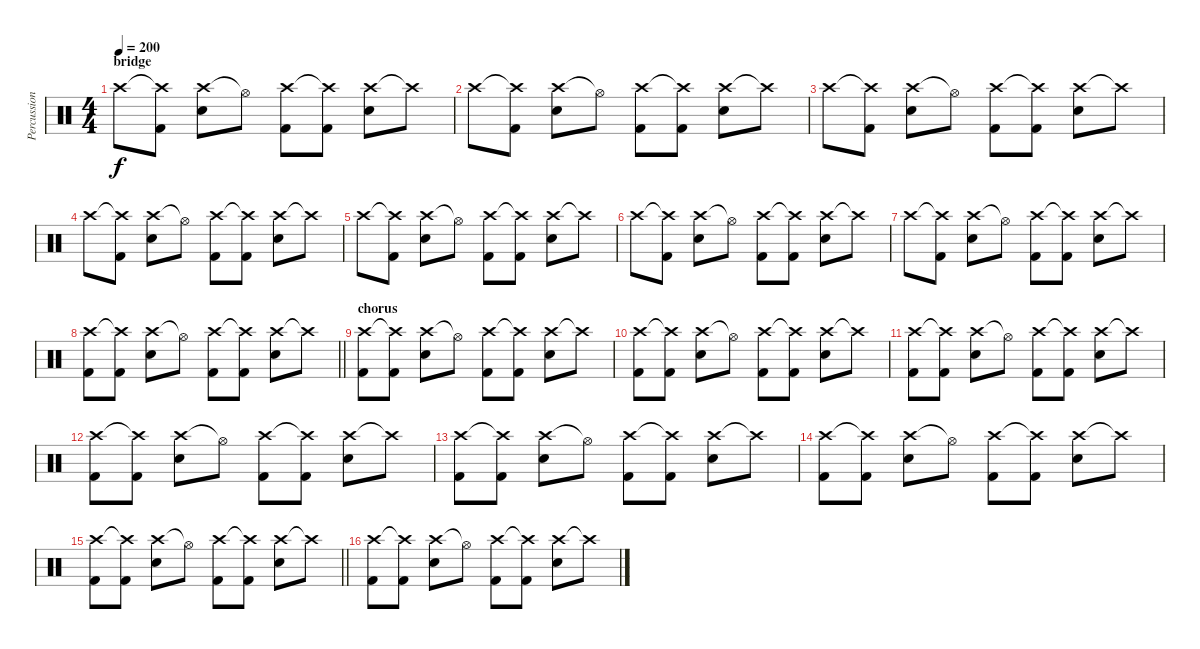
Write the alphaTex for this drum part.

\track ("Percussion" "Percussion") {instrument percussion}
\staff {score}
\articulation defaults
\ts (4 4)
\section ("" "bridge")
\tempo 200
\clef neutral
\ks c "Crash high (hit)".8{dy f}
("Crash high (hit)"{t} "Kick (hit) 2").8 ("Crash high (hit)" "Snare (hit) 2").8 "Hi-Hat (open)"{t}.8 ("Crash high (hit)" "Kick (hit) 2").8 ("Crash high (hit)"{t} "Kick (hit) 2").8 ("Crash high (hit)" "Snare (hit) 2").8 "Crash high (hit)"{t}.8 |
"Crash high (hit)".8 ("Crash high (hit)"{t} "Kick (hit) 2").8 ("Crash high (hit)" "Snare (hit) 2").8 "Hi-Hat (open)"{t}.8 ("Crash high (hit)" "Kick (hit) 2").8 ("Crash high (hit)"{t} "Kick (hit) 2").8 ("Crash high (hit)" "Snare (hit) 2").8 "Crash high (hit)"{t}.8 |
"Crash high (hit)".8 ("Crash high (hit)"{t} "Kick (hit) 2").8 ("Crash high (hit)" "Snare (hit) 2").8 "Hi-Hat (open)"{t}.8 ("Crash high (hit)" "Kick (hit) 2").8 ("Crash high (hit)"{t} "Kick (hit) 2").8 ("Crash high (hit)" "Snare (hit) 2").8 "Crash high (hit)"{t}.8 |
"Crash high (hit)".8 ("Crash high (hit)"{t} "Kick (hit) 2").8 ("Crash high (hit)" "Snare (hit) 2").8 "Hi-Hat (open)"{t}.8 ("Crash high (hit)" "Kick (hit) 2").8 ("Crash high (hit)"{t} "Kick (hit) 2").8 ("Crash high (hit)" "Snare (hit) 2").8 "Crash high (hit)"{t}.8 |
"Crash high (hit)".8 ("Crash high (hit)"{t} "Kick (hit) 2").8 ("Crash high (hit)" "Snare (hit) 2").8 "Hi-Hat (open)"{t}.8 ("Crash high (hit)" "Kick (hit) 2").8 ("Crash high (hit)"{t} "Kick (hit) 2").8 ("Crash high (hit)" "Snare (hit) 2").8 "Crash high (hit)"{t}.8 |
"Crash high (hit)".8 ("Crash high (hit)"{t} "Kick (hit) 2").8 ("Crash high (hit)" "Snare (hit) 2").8 "Hi-Hat (open)"{t}.8 ("Crash high (hit)" "Kick (hit) 2").8 ("Crash high (hit)"{t} "Kick (hit) 2").8 ("Crash high (hit)" "Snare (hit) 2").8 "Crash high (hit)"{t}.8 |
"Crash high (hit)".8 ("Crash high (hit)"{t} "Kick (hit) 2").8 ("Crash high (hit)" "Snare (hit) 2").8 "Hi-Hat (open)"{t}.8 ("Crash high (hit)" "Kick (hit) 2").8 ("Crash high (hit)"{t} "Kick (hit) 2").8 ("Crash high (hit)" "Snare (hit) 2").8 "Crash high (hit)"{t}.8 |
\barLineRight lightlight
("Crash high (hit)" "Kick (hit) 2").8 ("Crash high (hit)"{t} "Kick (hit) 2").8 ("Crash high (hit)" "Snare (hit) 2").8 "Hi-Hat (open)"{t}.8 ("Crash high (hit)" "Kick (hit) 2").8 ("Crash high (hit)"{t} "Kick (hit) 2").8 ("Crash high (hit)" "Snare (hit) 2").8 "Crash high (hit)"{t}.8 |
\section ("" "chorus")
("Crash high (hit)" "Kick (hit) 2").8 ("Crash high (hit)"{t} "Kick (hit) 2").8 ("Crash high (hit)" "Snare (hit) 2").8 "Hi-Hat (open)"{t}.8 ("Crash high (hit)" "Kick (hit) 2").8 ("Crash high (hit)"{t} "Kick (hit) 2").8 ("Crash high (hit)" "Snare (hit) 2").8 "Crash high (hit)"{t}.8 |
("Crash high (hit)" "Kick (hit) 2").8 ("Crash high (hit)"{t} "Kick (hit) 2").8 ("Crash high (hit)" "Snare (hit) 2").8 "Hi-Hat (open)"{t}.8 ("Crash high (hit)" "Kick (hit) 2").8 ("Crash high (hit)"{t} "Kick (hit) 2").8 ("Crash high (hit)" "Snare (hit) 2").8 "Crash high (hit)"{t}.8 |
("Crash high (hit)" "Kick (hit) 2").8 ("Crash high (hit)"{t} "Kick (hit) 2").8 ("Crash high (hit)" "Snare (hit) 2").8 "Hi-Hat (open)"{t}.8 ("Crash high (hit)" "Kick (hit) 2").8 ("Crash high (hit)"{t} "Kick (hit) 2").8 ("Crash high (hit)" "Snare (hit) 2").8 "Crash high (hit)"{t}.8 |
("Crash high (hit)" "Kick (hit) 2").8 ("Crash high (hit)"{t} "Kick (hit) 2").8 ("Crash high (hit)" "Snare (hit) 2").8 "Hi-Hat (open)"{t}.8 ("Crash high (hit)" "Kick (hit) 2").8 ("Crash high (hit)"{t} "Kick (hit) 2").8 ("Crash high (hit)" "Snare (hit) 2").8 "Crash high (hit)"{t}.8 |
("Crash high (hit)" "Kick (hit) 2").8 ("Crash high (hit)"{t} "Kick (hit) 2").8 ("Crash high (hit)" "Snare (hit) 2").8 "Hi-Hat (open)"{t}.8 ("Crash high (hit)" "Kick (hit) 2").8 ("Crash high (hit)"{t} "Kick (hit) 2").8 ("Crash high (hit)" "Snare (hit) 2").8 "Crash high (hit)"{t}.8 |
("Crash high (hit)" "Kick (hit) 2").8 ("Crash high (hit)"{t} "Kick (hit) 2").8 ("Crash high (hit)" "Snare (hit) 2").8 "Hi-Hat (open)"{t}.8 ("Crash high (hit)" "Kick (hit) 2").8 ("Crash high (hit)"{t} "Kick (hit) 2").8 ("Crash high (hit)" "Snare (hit) 2").8 "Crash high (hit)"{t}.8 |
\barLineRight lightlight
("Crash high (hit)" "Kick (hit) 2").8 ("Crash high (hit)"{t} "Kick (hit) 2").8 ("Crash high (hit)" "Snare (hit) 2").8 "Hi-Hat (open)"{t}.8 ("Crash high (hit)" "Kick (hit) 2").8 ("Crash high (hit)"{t} "Kick (hit) 2").8 ("Crash high (hit)" "Snare (hit) 2").8 "Crash high (hit)"{t}.8 |
("Crash high (hit)" "Kick (hit) 2").8 ("Crash high (hit)"{t} "Kick (hit) 2").8 ("Crash high (hit)" "Snare (hit) 2").8 "Hi-Hat (open)"{t}.8 ("Crash high (hit)" "Kick (hit) 2").8 ("Crash high (hit)"{t} "Kick (hit) 2").8 ("Crash high (hit)" "Snare (hit) 2").8 "Crash high (hit)"{t}.8
